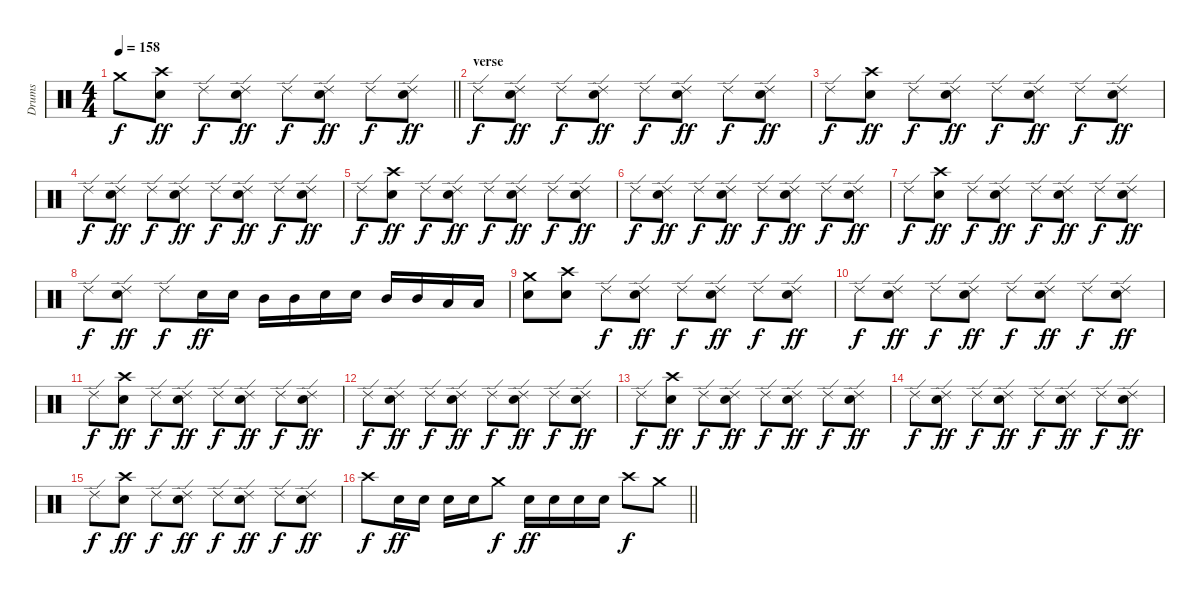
\track ("Drums" "Drums") {instrument percussion}
\staff {score}
\articulation defaults
\ts (4 4)
\section ("" "")
\tempo 158
\clef neutral
\barLineRight lightlight
\ks c "Crash medium (hit)".8{dy f}
("Crash high (hit)" "Snare (hit) 2").8{dy ff} "Ride (edge) 2".8{dy f} ("Ride (edge) 2" "Snare (hit) 2").8{dy ff} "Ride (edge) 2".8{dy f} ("Ride (edge) 2" "Snare (hit) 2").8{dy ff} "Ride (edge) 2".8{dy f} ("Ride (edge) 2" "Snare (hit) 2").8{dy ff} |
\section ("" "verse")
"Ride (edge) 2".8{dy f} ("Ride (edge) 2" "Snare (hit) 2").8{dy ff} "Ride (edge) 2".8{dy f} ("Ride (edge) 2" "Snare (hit) 2").8{dy ff} "Ride (edge) 2".8{dy f} ("Ride (edge) 2" "Snare (hit) 2").8{dy ff} "Ride (edge) 2".8{dy f} ("Ride (edge) 2" "Snare (hit) 2").8{dy ff} |
"Ride (edge) 2".8{dy f} ("Crash high (hit)" "Snare (hit) 2").8{dy ff} "Ride (edge) 2".8{dy f} ("Ride (edge) 2" "Snare (hit) 2").8{dy ff} "Ride (edge) 2".8{dy f} ("Ride (edge) 2" "Snare (hit) 2").8{dy ff} "Ride (edge) 2".8{dy f} ("Ride (edge) 2" "Snare (hit) 2").8{dy ff} |
"Ride (edge) 2".8{dy f} ("Ride (edge) 2" "Snare (hit) 2").8{dy ff} "Ride (edge) 2".8{dy f} ("Ride (edge) 2" "Snare (hit) 2").8{dy ff} "Ride (edge) 2".8{dy f} ("Ride (edge) 2" "Snare (hit) 2").8{dy ff} "Ride (edge) 2".8{dy f} ("Ride (edge) 2" "Snare (hit) 2").8{dy ff} |
"Ride (edge) 2".8{dy f} ("Crash high (hit)" "Snare (hit) 2").8{dy ff} "Ride (edge) 2".8{dy f} ("Ride (edge) 2" "Snare (hit) 2").8{dy ff} "Ride (edge) 2".8{dy f} ("Ride (edge) 2" "Snare (hit) 2").8{dy ff} "Ride (edge) 2".8{dy f} ("Ride (edge) 2" "Snare (hit) 2").8{dy ff} |
"Ride (edge) 2".8{dy f} ("Ride (edge) 2" "Snare (hit) 2").8{dy ff} "Ride (edge) 2".8{dy f} ("Ride (edge) 2" "Snare (hit) 2").8{dy ff} "Ride (edge) 2".8{dy f} ("Ride (edge) 2" "Snare (hit) 2").8{dy ff} "Ride (edge) 2".8{dy f} ("Ride (edge) 2" "Snare (hit) 2").8{dy ff} |
"Ride (edge) 2".8{dy f} ("Crash high (hit)" "Snare (hit) 2").8{dy ff} "Ride (edge) 2".8{dy f} ("Ride (edge) 2" "Snare (hit) 2").8{dy ff} "Ride (edge) 2".8{dy f} ("Ride (edge) 2" "Snare (hit) 2").8{dy ff} "Ride (edge) 2".8{dy f} ("Ride (edge) 2" "Snare (hit) 2").8{dy ff} |
"Ride (edge) 2".8{dy f} ("Ride (edge) 2" "Snare (hit) 2").8{dy ff} "Ride (edge) 2".8{dy f} "Snare (hit) 2".16{dy ff} "Snare (hit) 2".16 "Mid Tom (hit)".16 "Mid Tom (hit)".16 "Snare (hit) 2".16 "Snare (hit) 2".16 "Mid Tom (hit)".16 "Mid Tom (hit)".16 "Low Tom (hit)".16 "Low Tom (hit)".16 |
("Crash medium (hit)" "Snare (hit) 2").8 ("Crash high (hit)" "Snare (hit) 2").8 "Ride (edge) 2".8{dy f} ("Ride (edge) 2" "Snare (hit) 2").8{dy ff} "Ride (edge) 2".8{dy f} ("Ride (edge) 2" "Snare (hit) 2").8{dy ff} "Ride (edge) 2".8{dy f} ("Ride (edge) 2" "Snare (hit) 2").8{dy ff} |
"Ride (edge) 2".8{dy f} ("Ride (edge) 2" "Snare (hit) 2").8{dy ff} "Ride (edge) 2".8{dy f} ("Ride (edge) 2" "Snare (hit) 2").8{dy ff} "Ride (edge) 2".8{dy f} ("Ride (edge) 2" "Snare (hit) 2").8{dy ff} "Ride (edge) 2".8{dy f} ("Ride (edge) 2" "Snare (hit) 2").8{dy ff} |
"Ride (edge) 2".8{dy f} ("Crash high (hit)" "Snare (hit) 2").8{dy ff} "Ride (edge) 2".8{dy f} ("Ride (edge) 2" "Snare (hit) 2").8{dy ff} "Ride (edge) 2".8{dy f} ("Ride (edge) 2" "Snare (hit) 2").8{dy ff} "Ride (edge) 2".8{dy f} ("Ride (edge) 2" "Snare (hit) 2").8{dy ff} |
"Ride (edge) 2".8{dy f} ("Ride (edge) 2" "Snare (hit) 2").8{dy ff} "Ride (edge) 2".8{dy f} ("Ride (edge) 2" "Snare (hit) 2").8{dy ff} "Ride (edge) 2".8{dy f} ("Ride (edge) 2" "Snare (hit) 2").8{dy ff} "Ride (edge) 2".8{dy f} ("Ride (edge) 2" "Snare (hit) 2").8{dy ff} |
"Ride (edge) 2".8{dy f} ("Crash high (hit)" "Snare (hit) 2").8{dy ff} "Ride (edge) 2".8{dy f} ("Ride (edge) 2" "Snare (hit) 2").8{dy ff} "Ride (edge) 2".8{dy f} ("Ride (edge) 2" "Snare (hit) 2").8{dy ff} "Ride (edge) 2".8{dy f} ("Ride (edge) 2" "Snare (hit) 2").8{dy ff} |
"Ride (edge) 2".8{dy f} ("Ride (edge) 2" "Snare (hit) 2").8{dy ff} "Ride (edge) 2".8{dy f} ("Ride (edge) 2" "Snare (hit) 2").8{dy ff} "Ride (edge) 2".8{dy f} ("Ride (edge) 2" "Snare (hit) 2").8{dy ff} "Ride (edge) 2".8{dy f} ("Ride (edge) 2" "Snare (hit) 2").8{dy ff} |
"Ride (edge) 2".8{dy f} ("Crash high (hit)" "Snare (hit) 2").8{dy ff} "Ride (edge) 2".8{dy f} ("Ride (edge) 2" "Snare (hit) 2").8{dy ff} "Ride (edge) 2".8{dy f} ("Ride (edge) 2" "Snare (hit) 2").8{dy ff} "Ride (edge) 2".8{dy f} ("Ride (edge) 2" "Snare (hit) 2").8{dy ff} |
\barLineRight lightlight "Crash high (hit)".8{dy f} "Snare (hit) 2".16{dy ff} "Snare (hit) 2".16 "Snare (hit) 2".16 "Snare (hit) 2".16 "Crash medium (hit)".8{dy f} "Snare (hit) 2".16{dy ff} "Snare (hit) 2".16 "Snare (hit) 2".16 "Snare (hit) 2".16 "Crash high (hit)".8{dy f} "Crash medium (hit)".8
